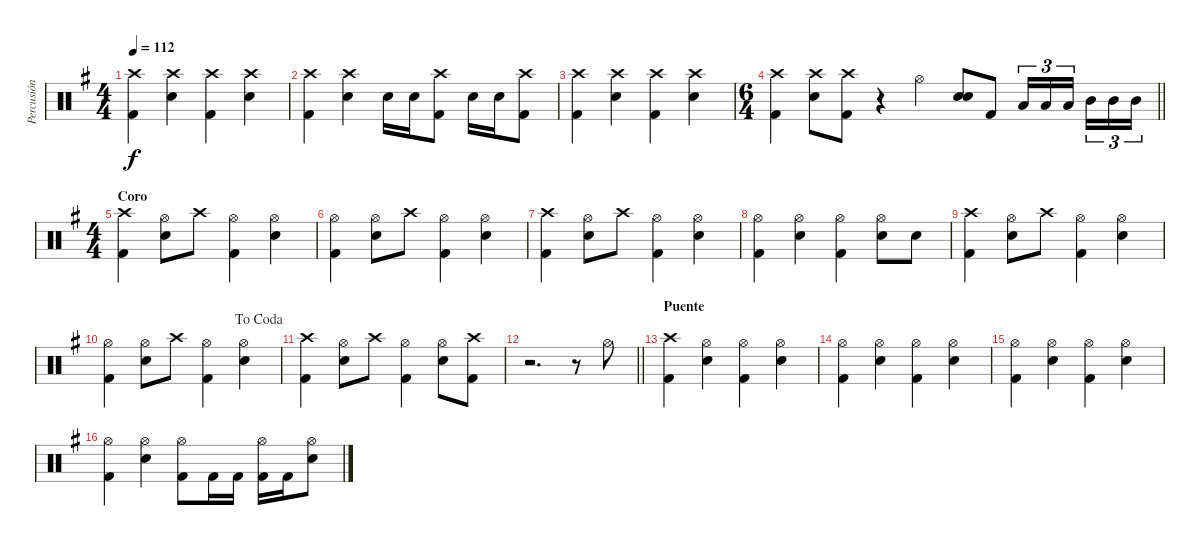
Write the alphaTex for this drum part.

\track ("Percusión" "Percusión") {instrument percussion}
\staff {score}
\articulation defaults
\ts (4 4)
\tempo 112
\clef neutral
\ks g
("Crash high (hit)" "Kick (hit) 2").4{dy f} ("Crash high (hit)" "Electric Snare (hit)").4 ("Crash high (hit)" "Kick (hit) 2").4 ("Crash high (hit)" "Electric Snare (hit)").4 |
("Crash high (hit)" "Kick (hit) 2").4 ("Crash high (hit)" "Electric Snare (hit)").4 "Electric Snare (hit)".16 "Electric Snare (hit)".16 ("Crash high (hit)" "Kick (hit) 2").8 "Electric Snare (hit)".16 "Electric Snare (hit)".16 ("Crash high (hit)" "Kick (hit) 2").8 |
("Crash high (hit)" "Kick (hit) 2").4 ("Crash high (hit)" "Electric Snare (hit)").4 ("Crash high (hit)" "Kick (hit) 2").4 ("Crash high (hit)" "Electric Snare (hit)").4 |
\ts (6 4)
\barLineRight lightlight
("Crash high (hit)" "Kick (hit) 2").4 ("Crash high (hit)" "Electric Snare (hit)").8 ("Crash high (hit)" "Kick (hit) 2").8 r.4 "Hi-Hat (open)".4 ("Electric Snare (hit)" "Electric Snare (hit)").8 "Kick (hit) 2".8 "Low Tom (hit)".16{tu (3 2)} "Low Tom (hit)".16{tu (3 2)} "Low Tom (hit)".16{tu (3 2) beam splitsecondary} "Mid Tom (hit)".16{tu (3 2)} "Mid Tom (hit)".16{tu (3 2)} "Mid Tom (hit)".16{tu (3 2)} |
\ts (4 4)
\section ("" "Coro")
("Crash high (hit)" "Kick (hit) 2").4 ("Hi-Hat (open)" "Electric Snare (hit)").8 "Crash high (hit)".8 ("Hi-Hat (open)" "Kick (hit) 2").4 ("Hi-Hat (open)" "Electric Snare (hit)").4 |
("Hi-Hat (open)" "Kick (hit) 2").4 ("Hi-Hat (open)" "Electric Snare (hit)").8 "Crash high (hit)".8 ("Hi-Hat (open)" "Kick (hit) 2").4 ("Hi-Hat (open)" "Electric Snare (hit)").4 |
("Crash high (hit)" "Kick (hit) 2").4 ("Hi-Hat (open)" "Electric Snare (hit)").8 "Crash high (hit)".8 ("Hi-Hat (open)" "Kick (hit) 2").4 ("Hi-Hat (open)" "Electric Snare (hit)").4 |
("Hi-Hat (open)" "Kick (hit) 2").4 ("Hi-Hat (open)" "Electric Snare (hit)").4 ("Hi-Hat (open)" "Kick (hit) 2").4 ("Hi-Hat (open)" "Electric Snare (hit)").8 "Electric Snare (hit)".8 |
("Crash high (hit)" "Kick (hit) 2").4 ("Hi-Hat (open)" "Electric Snare (hit)").8 "Crash high (hit)".8 ("Hi-Hat (open)" "Kick (hit) 2").4 ("Hi-Hat (open)" "Electric Snare (hit)").4 |
\jump dacoda
("Hi-Hat (open)" "Kick (hit) 2").4 ("Hi-Hat (open)" "Electric Snare (hit)").8 "Crash high (hit)".8 ("Hi-Hat (open)" "Kick (hit) 2").4 ("Hi-Hat (open)" "Electric Snare (hit)").4 |
("Crash high (hit)" "Kick (hit) 2").4 ("Hi-Hat (open)" "Electric Snare (hit)").8 "Crash high (hit)".8 ("Hi-Hat (open)" "Kick (hit) 2").4 ("Hi-Hat (open)" "Electric Snare (hit)").8 ("Crash high (hit)" "Kick (hit) 2").8 |
\barLineRight lightlight
r.2{d} r.8 "Hi-Hat (open)".8 |
\section ("" "Puente")
("Crash high (hit)" "Kick (hit) 2").4 ("Hi-Hat (open)" "Electric Snare (hit)").4 ("Hi-Hat (open)" "Kick (hit) 2").4 ("Hi-Hat (open)" "Electric Snare (hit)").4 |
("Hi-Hat (open)" "Kick (hit) 2").4 ("Hi-Hat (open)" "Electric Snare (hit)").4 ("Hi-Hat (open)" "Kick (hit) 2").4 ("Hi-Hat (open)" "Electric Snare (hit)").4 |
("Hi-Hat (open)" "Kick (hit) 2").4 ("Hi-Hat (open)" "Electric Snare (hit)").4 ("Hi-Hat (open)" "Kick (hit) 2").4 ("Hi-Hat (open)" "Electric Snare (hit)").4 |
("Hi-Hat (open)" "Kick (hit) 2").4 ("Hi-Hat (open)" "Electric Snare (hit)").4 ("Hi-Hat (open)" "Kick (hit) 2").8 "Kick (hit) 2".16 "Kick (hit) 2".16 ("Hi-Hat (open)" "Kick (hit) 2").16 "Kick (hit) 2".16 ("Hi-Hat (open)" "Electric Snare (hit)").8
